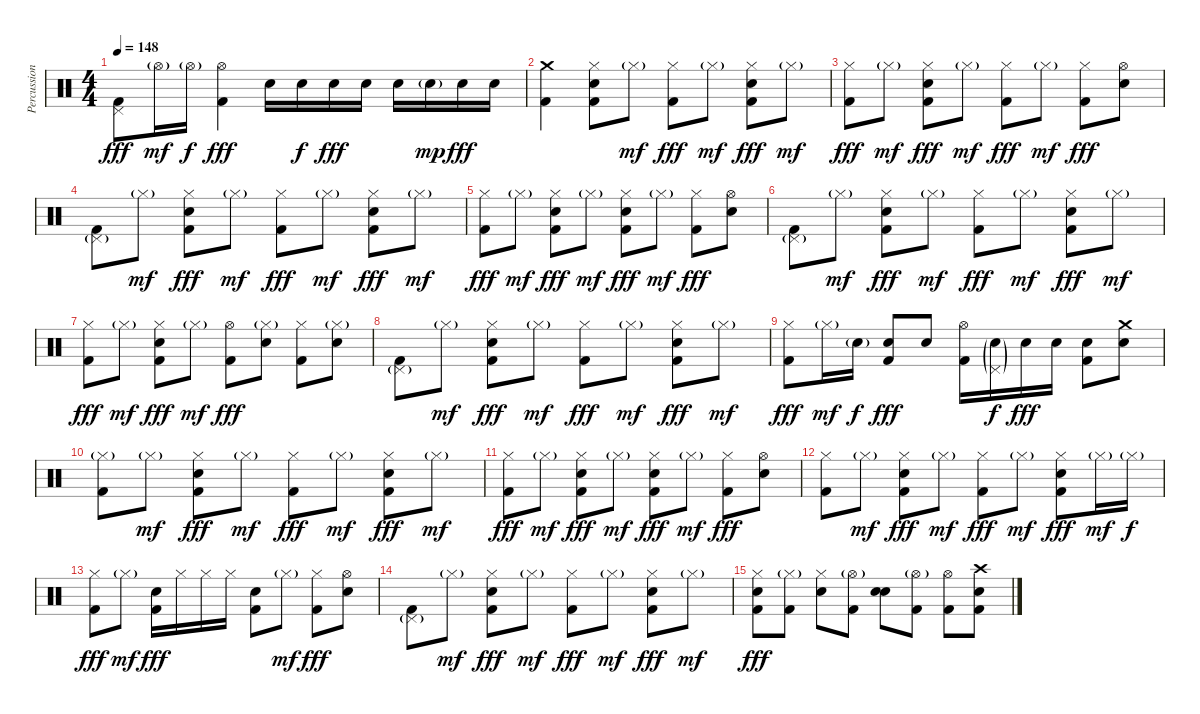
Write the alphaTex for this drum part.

\track ("Percussion" "Percussion") {instrument percussion}
\staff {score}
\articulation defaults
\ts (4 4)
\tempo 148
\clef neutral
\ks c
("Pedal Hi-Hat (hit)" "Kick (hit) 2").8{dy fff} "Hi-Hat (open)"{g}.16{dy mf} "Hi-Hat (open)"{g}.16{dy f} ("Hi-Hat (open)" "Kick (hit) 2").4{dy fff} "Electric Snare (hit)".16 "Electric Snare (hit)".16{dy f} "Electric Snare (hit)".16{dy fff} "Electric Snare (hit)".16 "Electric Snare (hit)".16 "Electric Snare (hit)"{g}.16{dy mp} "Electric Snare (hit)".16{dy fff} "Electric Snare (hit)".16 |
("Crash medium (hit)" "Kick (hit) 2").4 ("Hi-Hat (closed)" "Kick (hit) 2" "Electric Snare (hit)").8 "Hi-Hat (closed)"{g}.8{dy mf} ("Hi-Hat (closed)" "Kick (hit) 2").8{dy fff} "Hi-Hat (closed)"{g}.8{dy mf} ("Hi-Hat (closed)" "Kick (hit) 2" "Electric Snare (hit)").8{dy fff} "Hi-Hat (closed)"{g}.8{dy mf} |
("Hi-Hat (closed)" "Kick (hit) 2").8{dy fff} "Hi-Hat (closed)"{g}.8{dy mf} ("Hi-Hat (closed)" "Kick (hit) 2" "Electric Snare (hit)").8{dy fff} "Hi-Hat (closed)"{g}.8{dy mf} ("Hi-Hat (closed)" "Kick (hit) 2").8{dy fff} "Hi-Hat (closed)"{g}.8{dy mf} ("Hi-Hat (closed)" "Kick (hit) 2").8{dy fff} ("Hi-Hat (open)" "Electric Snare (hit)").8 |
("Pedal Hi-Hat (hit)"{g} "Kick (hit) 2").8 "Hi-Hat (closed)"{g}.8{dy mf} ("Hi-Hat (closed)" "Kick (hit) 2" "Electric Snare (hit)").8{dy fff} "Hi-Hat (closed)"{g}.8{dy mf} ("Hi-Hat (closed)" "Kick (hit) 2").8{dy fff} "Hi-Hat (closed)"{g}.8{dy mf} ("Hi-Hat (closed)" "Kick (hit) 2" "Electric Snare (hit)").8{dy fff} "Hi-Hat (closed)"{g}.8{dy mf} |
("Hi-Hat (closed)" "Kick (hit) 2").8{dy fff} "Hi-Hat (closed)"{g}.8{dy mf} ("Hi-Hat (closed)" "Kick (hit) 2" "Electric Snare (hit)").8{dy fff} "Hi-Hat (closed)"{g}.8{dy mf} ("Hi-Hat (closed)" "Kick (hit) 2" "Electric Snare (hit)").8{dy fff} "Hi-Hat (closed)"{g}.8{dy mf} ("Hi-Hat (closed)" "Kick (hit) 2").8{dy fff} ("Hi-Hat (open)" "Electric Snare (hit)").8 |
("Pedal Hi-Hat (hit)"{g} "Kick (hit) 2").8 "Hi-Hat (closed)"{g}.8{dy mf} ("Hi-Hat (closed)" "Kick (hit) 2" "Electric Snare (hit)").8{dy fff} "Hi-Hat (closed)"{g}.8{dy mf} ("Hi-Hat (closed)" "Kick (hit) 2").8{dy fff} "Hi-Hat (closed)"{g}.8{dy mf} ("Hi-Hat (closed)" "Kick (hit) 2" "Electric Snare (hit)").8{dy fff} "Hi-Hat (closed)"{g}.8{dy mf} |
("Hi-Hat (closed)" "Kick (hit) 2").8{dy fff} "Hi-Hat (closed)"{g}.8{dy mf} ("Hi-Hat (closed)" "Kick (hit) 2" "Electric Snare (hit)").8{dy fff} "Hi-Hat (closed)"{g}.8{dy mf} ("Hi-Hat (open)" "Kick (hit) 2").8{dy fff} ("Hi-Hat (closed)"{g} "Electric Snare (hit)").8 ("Hi-Hat (closed)" "Kick (hit) 2").8 ("Hi-Hat (closed)"{g} "Electric Snare (hit)").8 |
("Pedal Hi-Hat (hit)"{g} "Kick (hit) 2").8 "Hi-Hat (closed)"{g}.8{dy mf} ("Hi-Hat (closed)" "Kick (hit) 2" "Electric Snare (hit)").8{dy fff} "Hi-Hat (closed)"{g}.8{dy mf} ("Hi-Hat (closed)" "Kick (hit) 2").8{dy fff} "Hi-Hat (closed)"{g}.8{dy mf} ("Hi-Hat (closed)" "Kick (hit) 2" "Electric Snare (hit)").8{dy fff} "Hi-Hat (closed)"{g}.8{dy mf} |
("Hi-Hat (closed)" "Kick (hit) 2").8{dy fff} "Hi-Hat (closed)"{g}.16{dy mf} "Electric Snare (hit)"{g}.16{dy f} ("Kick (hit) 2" "Electric Snare (hit)").8{dy fff} "Electric Snare (hit)".8 ("Hi-Hat (open)" "Kick (hit) 2").16 ("Pedal Hi-Hat (hit)"{g} "Electric Snare (hit)"{g}).16{dy f} "Electric Snare (hit)".16{dy fff} "Electric Snare (hit)".16 ("Kick (hit) 2" "Electric Snare (hit)").8 ("Crash medium (hit)" "Electric Snare (hit)").8 |
("Hi-Hat (closed)"{g} "Kick (hit) 2").8 "Hi-Hat (closed)"{g}.8{dy mf} ("Hi-Hat (closed)" "Kick (hit) 2" "Electric Snare (hit)").8{dy fff} "Hi-Hat (closed)"{g}.8{dy mf} ("Hi-Hat (closed)" "Kick (hit) 2").8{dy fff} "Hi-Hat (closed)"{g}.8{dy mf} ("Hi-Hat (closed)" "Kick (hit) 2" "Electric Snare (hit)").8{dy fff} "Hi-Hat (closed)"{g}.8{dy mf} |
("Hi-Hat (closed)" "Kick (hit) 2").8{dy fff} "Hi-Hat (closed)"{g}.8{dy mf} ("Hi-Hat (closed)" "Kick (hit) 2" "Electric Snare (hit)").8{dy fff} "Hi-Hat (closed)"{g}.8{dy mf} ("Hi-Hat (closed)" "Kick (hit) 2" "Electric Snare (hit)").8{dy fff} "Hi-Hat (closed)"{g}.8{dy mf} ("Hi-Hat (closed)" "Kick (hit) 2").8{dy fff} ("Hi-Hat (open)" "Electric Snare (hit)").8 |
("Hi-Hat (closed)" "Kick (hit) 2").8 "Hi-Hat (closed)"{g}.8{dy mf} ("Hi-Hat (closed)" "Kick (hit) 2" "Electric Snare (hit)").8{dy fff} "Hi-Hat (closed)"{g}.8{dy mf} ("Hi-Hat (closed)" "Kick (hit) 2").8{dy fff} "Hi-Hat (closed)"{g}.8{dy mf} ("Hi-Hat (closed)" "Kick (hit) 2" "Electric Snare (hit)").8{dy fff} "Hi-Hat (closed)"{g}.16{dy mf} "Hi-Hat (closed)"{g}.16{dy f} |
("Hi-Hat (closed)" "Kick (hit) 2").8{dy fff} "Hi-Hat (closed)"{g}.8{dy mf} ("Kick (hit) 2" "Electric Snare (hit)").16{dy fff} "Hi-Hat (closed)".16 "Hi-Hat (closed)".16 "Hi-Hat (closed)".16 ("Kick (hit) 2" "Electric Snare (hit)").8 "Hi-Hat (closed)"{g}.8{dy mf} ("Hi-Hat (closed)" "Kick (hit) 2").8{dy fff} ("Hi-Hat (open)" "Electric Snare (hit)").8 |
("Pedal Hi-Hat (hit)"{g} "Kick (hit) 2").8 "Hi-Hat (closed)"{g}.8{dy mf} ("Hi-Hat (closed)" "Kick (hit) 2" "Electric Snare (hit)").8{dy fff} "Hi-Hat (closed)"{g}.8{dy mf} ("Hi-Hat (closed)" "Kick (hit) 2").8{dy fff} "Hi-Hat (closed)"{g}.8{dy mf} ("Hi-Hat (closed)" "Kick (hit) 2" "Electric Snare (hit)").8{dy fff} "Hi-Hat (closed)"{g}.8{dy mf} |
("Hi-Hat (closed)" "Kick (hit) 2" "Electric Snare (hit)").8{dy fff} ("Hi-Hat (closed)"{g} "Kick (hit) 2").8 ("Hi-Hat (closed)" "Electric Snare (hit)").8 ("Hi-Hat (open)"{g} "Kick (hit) 2").8 ("Electric Snare (hit)" "Electric Snare (hit)").8{bd 240} ("Hi-Hat (open)"{g} "Kick (hit) 2").8 ("Hi-Hat (open)" "Kick (hit) 2").8 ("Crash high (hit)" "Kick (hit) 2" "Electric Snare (hit)").8
